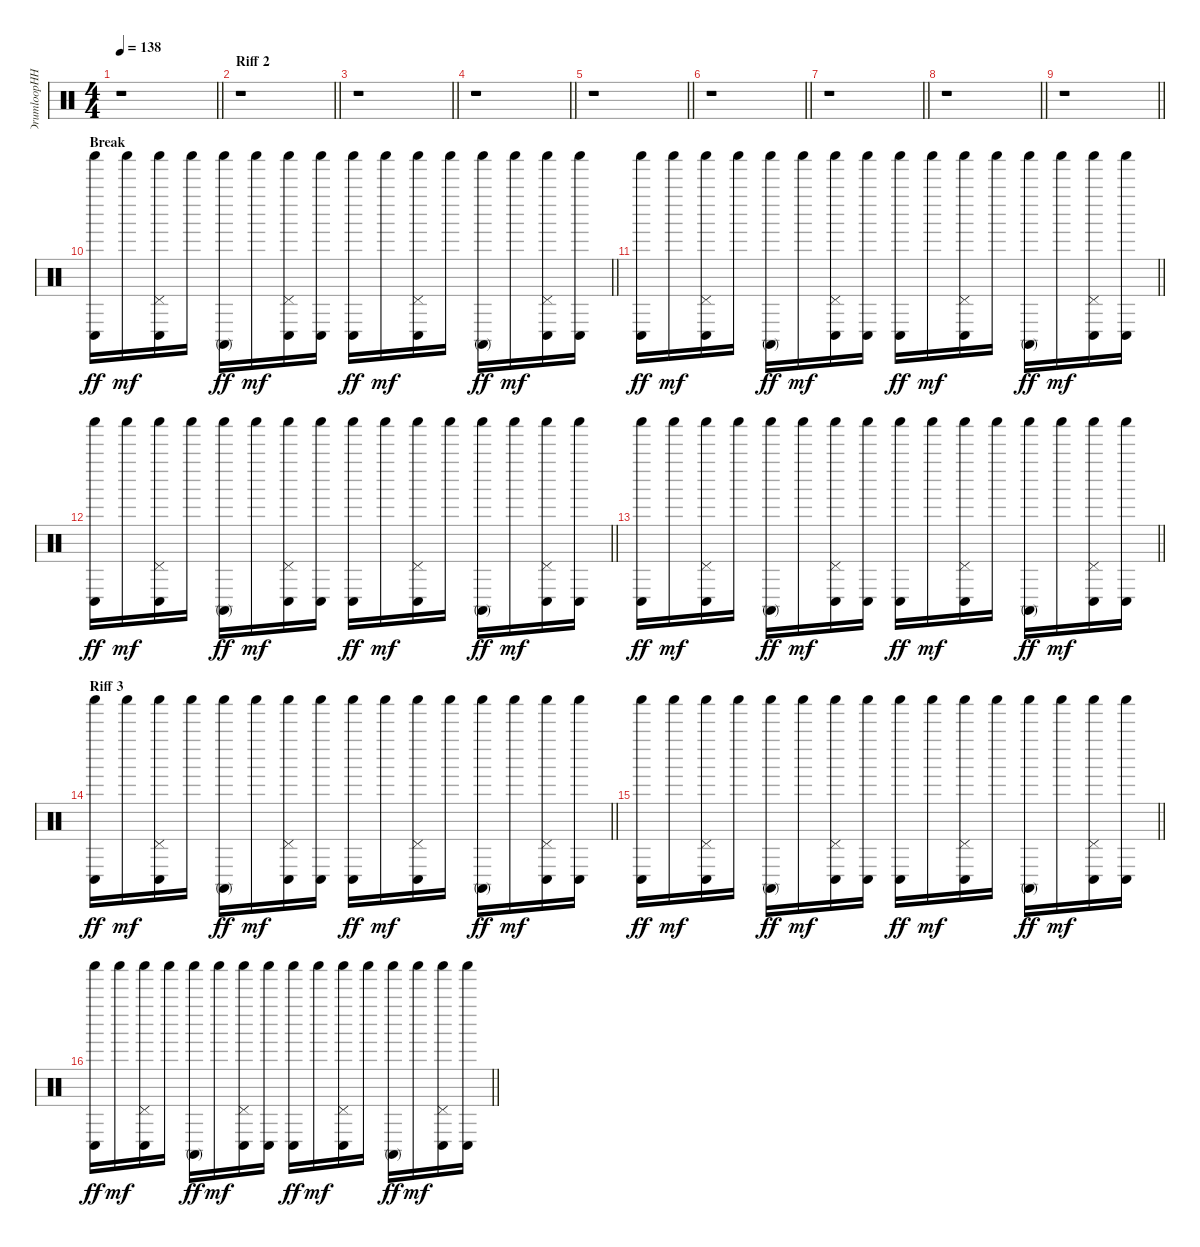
\track ("DrumloopHH" "DrumloopHH") {instrument percussion}
\staff {score}
\articulation defaults
\ts (4 4)
\tempo 138
\clef neutral
\barLineRight lightlight
\ks c
r.1{dy mf} |
\section ("" "Riff 2")
\barLineRight lightlight
r.1 |
\barLineRight lightlight
r.1 |
\barLineRight lightlight
r.1 |
\barLineRight lightlight
r.1 |
\barLineRight lightlight
r.1 |
\barLineRight lightlight
r.1 |
\barLineRight lightlight
r.1 |
\barLineRight lightlight
r.1 |
\section ("" "Break")
\barLineRight lightlight
("Conga low (hit)" "Shaker (hit)").16{dy ff} "Shaker (hit)".16{dy mf} ("Conga low (hit)" "Pedal Hi-Hat (hit)" "Shaker (hit)").16 "Shaker (hit)".16 ("Conga high (mute)" "Shaker (hit)").16{dy ff} "Shaker (hit)".16{dy mf} ("Conga low (hit)" "Pedal Hi-Hat (hit)" "Shaker (hit)").16 ("Conga low (hit)" "Shaker (hit)").16 ("Conga low (hit)" "Shaker (hit)").16{dy ff} "Shaker (hit)".16{dy mf} ("Conga low (hit)" "Pedal Hi-Hat (hit)" "Shaker (hit)").16 "Shaker (hit)".16 ("Conga high (mute)" "Shaker (hit)").16{dy ff} "Shaker (hit)".16{dy mf} ("Conga low (hit)" "Pedal Hi-Hat (hit)" "Shaker (hit)").16 ("Conga low (hit)" "Shaker (hit)").16 |
\barLineRight lightlight
("Conga low (hit)" "Shaker (hit)").16{dy ff} "Shaker (hit)".16{dy mf} ("Conga low (hit)" "Pedal Hi-Hat (hit)" "Shaker (hit)").16 "Shaker (hit)".16 ("Conga high (mute)" "Shaker (hit)").16{dy ff} "Shaker (hit)".16{dy mf} ("Conga low (hit)" "Pedal Hi-Hat (hit)" "Shaker (hit)").16 ("Conga low (hit)" "Shaker (hit)").16 ("Conga low (hit)" "Shaker (hit)").16{dy ff} "Shaker (hit)".16{dy mf} ("Conga low (hit)" "Pedal Hi-Hat (hit)" "Shaker (hit)").16 "Shaker (hit)".16 ("Conga high (mute)" "Shaker (hit)").16{dy ff} "Shaker (hit)".16{dy mf} ("Conga low (hit)" "Pedal Hi-Hat (hit)" "Shaker (hit)").16 ("Conga low (hit)" "Shaker (hit)").16 |
\barLineRight lightlight
("Conga low (hit)" "Shaker (hit)").16{dy ff} "Shaker (hit)".16{dy mf} ("Conga low (hit)" "Pedal Hi-Hat (hit)" "Shaker (hit)").16 "Shaker (hit)".16 ("Conga high (mute)" "Shaker (hit)").16{dy ff} "Shaker (hit)".16{dy mf} ("Conga low (hit)" "Pedal Hi-Hat (hit)" "Shaker (hit)").16 ("Conga low (hit)" "Shaker (hit)").16 ("Conga low (hit)" "Shaker (hit)").16{dy ff} "Shaker (hit)".16{dy mf} ("Conga low (hit)" "Pedal Hi-Hat (hit)" "Shaker (hit)").16 "Shaker (hit)".16 ("Conga high (mute)" "Shaker (hit)").16{dy ff} "Shaker (hit)".16{dy mf} ("Conga low (hit)" "Pedal Hi-Hat (hit)" "Shaker (hit)").16 ("Conga low (hit)" "Shaker (hit)").16 |
\barLineRight lightlight
("Conga low (hit)" "Shaker (hit)").16{dy ff} "Shaker (hit)".16{dy mf} ("Conga low (hit)" "Pedal Hi-Hat (hit)" "Shaker (hit)").16 "Shaker (hit)".16 ("Conga high (mute)" "Shaker (hit)").16{dy ff} "Shaker (hit)".16{dy mf} ("Conga low (hit)" "Pedal Hi-Hat (hit)" "Shaker (hit)").16 ("Conga low (hit)" "Shaker (hit)").16 ("Conga low (hit)" "Shaker (hit)").16{dy ff} "Shaker (hit)".16{dy mf} ("Conga low (hit)" "Pedal Hi-Hat (hit)" "Shaker (hit)").16 "Shaker (hit)".16 ("Conga high (mute)" "Shaker (hit)").16{dy ff} "Shaker (hit)".16{dy mf} ("Conga low (hit)" "Pedal Hi-Hat (hit)" "Shaker (hit)").16 ("Conga low (hit)" "Shaker (hit)").16 |
\section ("" "Riff 3")
\barLineRight lightlight
("Conga low (hit)" "Shaker (hit)").16{dy ff} "Shaker (hit)".16{dy mf} ("Conga low (hit)" "Pedal Hi-Hat (hit)" "Shaker (hit)").16 "Shaker (hit)".16 ("Conga high (mute)" "Shaker (hit)").16{dy ff} "Shaker (hit)".16{dy mf} ("Conga low (hit)" "Pedal Hi-Hat (hit)" "Shaker (hit)").16 ("Conga low (hit)" "Shaker (hit)").16 ("Conga low (hit)" "Shaker (hit)").16{dy ff} "Shaker (hit)".16{dy mf} ("Conga low (hit)" "Pedal Hi-Hat (hit)" "Shaker (hit)").16 "Shaker (hit)".16 ("Conga high (mute)" "Shaker (hit)").16{dy ff} "Shaker (hit)".16{dy mf} ("Conga low (hit)" "Pedal Hi-Hat (hit)" "Shaker (hit)").16 ("Conga low (hit)" "Shaker (hit)").16 |
\barLineRight lightlight
("Conga low (hit)" "Shaker (hit)").16{dy ff} "Shaker (hit)".16{dy mf} ("Conga low (hit)" "Pedal Hi-Hat (hit)" "Shaker (hit)").16 "Shaker (hit)".16 ("Conga high (mute)" "Shaker (hit)").16{dy ff} "Shaker (hit)".16{dy mf} ("Conga low (hit)" "Pedal Hi-Hat (hit)" "Shaker (hit)").16 ("Conga low (hit)" "Shaker (hit)").16 ("Conga low (hit)" "Shaker (hit)").16{dy ff} "Shaker (hit)".16{dy mf} ("Conga low (hit)" "Pedal Hi-Hat (hit)" "Shaker (hit)").16 "Shaker (hit)".16 ("Conga high (mute)" "Shaker (hit)").16{dy ff} "Shaker (hit)".16{dy mf} ("Conga low (hit)" "Pedal Hi-Hat (hit)" "Shaker (hit)").16 ("Conga low (hit)" "Shaker (hit)").16 |
\barLineRight lightlight
("Conga low (hit)" "Shaker (hit)").16{dy ff} "Shaker (hit)".16{dy mf} ("Conga low (hit)" "Pedal Hi-Hat (hit)" "Shaker (hit)").16 "Shaker (hit)".16 ("Conga high (mute)" "Shaker (hit)").16{dy ff} "Shaker (hit)".16{dy mf} ("Conga low (hit)" "Pedal Hi-Hat (hit)" "Shaker (hit)").16 ("Conga low (hit)" "Shaker (hit)").16 ("Conga low (hit)" "Shaker (hit)").16{dy ff} "Shaker (hit)".16{dy mf} ("Conga low (hit)" "Pedal Hi-Hat (hit)" "Shaker (hit)").16 "Shaker (hit)".16 ("Conga high (mute)" "Shaker (hit)").16{dy ff} "Shaker (hit)".16{dy mf} ("Conga low (hit)" "Pedal Hi-Hat (hit)" "Shaker (hit)").16 ("Conga low (hit)" "Shaker (hit)").16
